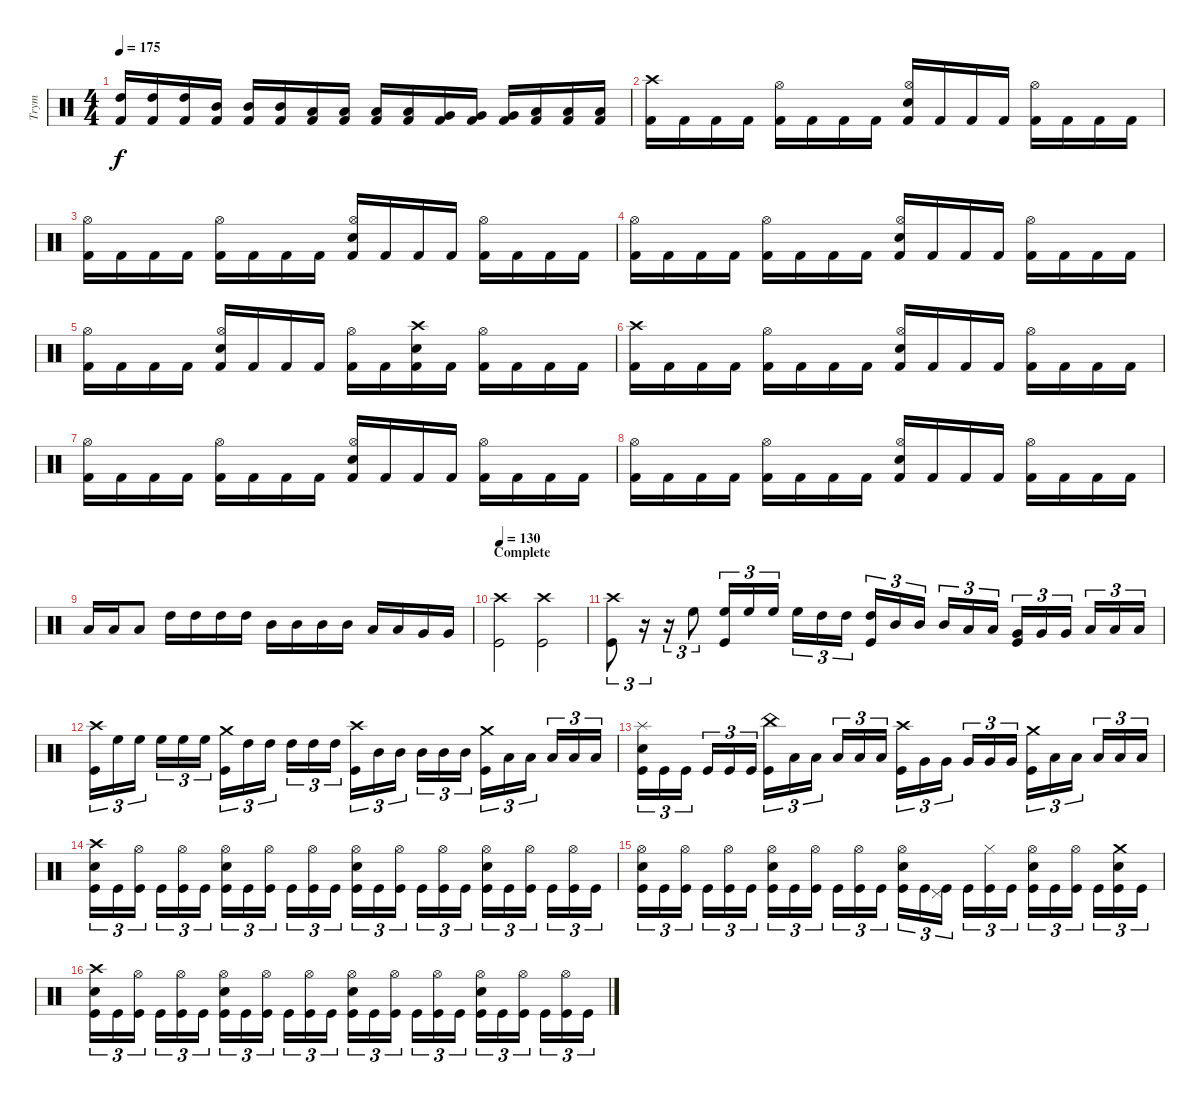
\track ("Trym" "Trym") {instrument percussion}
\staff {score}
\articulation defaults
\ts (4 4)
\tempo 175
\clef neutral
\ks c
("High Tom (hit)" "Kick (hit) 2").16{dy f} ("High Tom (hit)" "Kick (hit) 2").16 ("High Tom (hit)" "Kick (hit) 2").16 ("Mid Tom (hit)" "Kick (hit) 2").16 ("Mid Tom (hit)" "Kick (hit) 2").16 ("Mid Tom (hit)" "Kick (hit) 2").16 ("Low Tom (hit)" "Kick (hit) 2").16 ("Low Tom (hit)" "Kick (hit) 2").16 ("Low Tom (hit)" "Kick (hit) 2").16 ("Low Tom (hit)" "Kick (hit) 2").16 ("Very Low Tom (hit)" "Kick (hit) 2").16 ("Very Low Tom (hit)" "Kick (hit) 2").16 ("Very Low Tom (hit)" "Kick (hit) 2").16 ("Low Floor Tom (hit)" "Kick (hit) 2").16 ("Low Floor Tom (hit)" "Kick (hit) 2").16 ("Low Floor Tom (hit)" "Kick (hit) 2").16 |
("Crash high (hit)" "Kick (hit) 2").16 "Kick (hit) 2".16 "Kick (hit) 2".16 "Kick (hit) 2".16 ("Hi-Hat (open)" "Kick (hit) 2").16 "Kick (hit) 2".16 "Kick (hit) 2".16 "Kick (hit) 2".16 ("Hi-Hat (open)" "Electric Snare (hit)" "Kick (hit) 2").16 "Kick (hit) 2".16 "Kick (hit) 2".16 "Kick (hit) 2".16 ("Hi-Hat (open)" "Kick (hit) 2").16 "Kick (hit) 2".16 "Kick (hit) 2".16 "Kick (hit) 2".16 |
("Hi-Hat (open)" "Kick (hit) 2").16 "Kick (hit) 2".16 "Kick (hit) 2".16 "Kick (hit) 2".16 ("Hi-Hat (open)" "Kick (hit) 2").16 "Kick (hit) 2".16 "Kick (hit) 2".16 "Kick (hit) 2".16 ("Hi-Hat (open)" "Electric Snare (hit)" "Kick (hit) 2").16 "Kick (hit) 2".16 "Kick (hit) 2".16 "Kick (hit) 2".16 ("Hi-Hat (open)" "Kick (hit) 2").16 "Kick (hit) 2".16 "Kick (hit) 2".16 "Kick (hit) 2".16 |
("Hi-Hat (open)" "Kick (hit) 2").16 "Kick (hit) 2".16 "Kick (hit) 2".16 "Kick (hit) 2".16 ("Hi-Hat (open)" "Kick (hit) 2").16 "Kick (hit) 2".16 "Kick (hit) 2".16 "Kick (hit) 2".16 ("Hi-Hat (open)" "Electric Snare (hit)" "Kick (hit) 2").16 "Kick (hit) 2".16 "Kick (hit) 2".16 "Kick (hit) 2".16 ("Hi-Hat (open)" "Kick (hit) 2").16 "Kick (hit) 2".16 "Kick (hit) 2".16 "Kick (hit) 2".16 |
("Hi-Hat (open)" "Kick (hit) 2").16 "Kick (hit) 2".16 "Kick (hit) 2".16 "Kick (hit) 2".16 ("Hi-Hat (open)" "Electric Snare (hit)" "Kick (hit) 2").16 "Kick (hit) 2".16 "Kick (hit) 2".16 "Kick (hit) 2".16 ("Hi-Hat (open)" "Kick (hit) 2").16 "Kick (hit) 2".16 ("Crash high (hit)" "Electric Snare (hit)" "Kick (hit) 2").16 "Kick (hit) 2".16 ("Hi-Hat (open)" "Kick (hit) 2").16 "Kick (hit) 2".16 "Kick (hit) 2".16 "Kick (hit) 2".16 |
("Crash high (hit)" "Kick (hit) 2").16 "Kick (hit) 2".16 "Kick (hit) 2".16 "Kick (hit) 2".16 ("Hi-Hat (open)" "Kick (hit) 2").16 "Kick (hit) 2".16 "Kick (hit) 2".16 "Kick (hit) 2".16 ("Hi-Hat (open)" "Electric Snare (hit)" "Kick (hit) 2").16 "Kick (hit) 2".16 "Kick (hit) 2".16 "Kick (hit) 2".16 ("Hi-Hat (open)" "Kick (hit) 2").16 "Kick (hit) 2".16 "Kick (hit) 2".16 "Kick (hit) 2".16 |
("Hi-Hat (open)" "Kick (hit) 2").16 "Kick (hit) 2".16 "Kick (hit) 2".16 "Kick (hit) 2".16 ("Hi-Hat (open)" "Kick (hit) 2").16 "Kick (hit) 2".16 "Kick (hit) 2".16 "Kick (hit) 2".16 ("Hi-Hat (open)" "Electric Snare (hit)" "Kick (hit) 2").16 "Kick (hit) 2".16 "Kick (hit) 2".16 "Kick (hit) 2".16 ("Hi-Hat (open)" "Kick (hit) 2").16 "Kick (hit) 2".16 "Kick (hit) 2".16 "Kick (hit) 2".16 |
("Hi-Hat (open)" "Kick (hit) 2").16 "Kick (hit) 2".16 "Kick (hit) 2".16 "Kick (hit) 2".16 ("Hi-Hat (open)" "Kick (hit) 2").16 "Kick (hit) 2".16 "Kick (hit) 2".16 "Kick (hit) 2".16 ("Hi-Hat (open)" "Electric Snare (hit)" "Kick (hit) 2").16 "Kick (hit) 2".16 "Kick (hit) 2".16 "Kick (hit) 2".16 ("Hi-Hat (open)" "Kick (hit) 2").16 "Kick (hit) 2".16 "Kick (hit) 2".16 "Kick (hit) 2".16 |
"Low Tom (hit)".16 "Low Tom (hit)".16 "Low Tom (hit)".8 "High Tom (hit)".16 "High Tom (hit)".16 "High Tom (hit)".16 "High Tom (hit)".16 "Mid Tom (hit)".16 "Mid Tom (hit)".16 "Mid Tom (hit)".16 "Mid Tom (hit)".16 "Low Tom (hit)".16 "Low Tom (hit)".16 "Very Low Tom (hit)".16 "Very Low Tom (hit)".16 |
\section ("" "Complete")
\tempo 130
("Crash high (hit)" "Kick (hit)").2 ("Crash high (hit)" "Kick (hit)").2 |
("Crash high (hit)" "Kick (hit)").8{tu (3 2)} r.16{tu (3 2)} r.16{tu (3 2)} "High Floor Tom (hit)".8{tu (3 2)} ("High Floor Tom (hit)" "Kick (hit)").16{tu (3 2)} "High Floor Tom (hit)".16{tu (3 2)} "High Floor Tom (hit)".16{tu (3 2)} "High Floor Tom (hit)".16{tu (3 2)} "High Tom (hit)".16{tu (3 2)} "High Tom (hit)".16{tu (3 2)} ("High Tom (hit)" "Kick (hit)").16{tu (3 2)} "Mid Tom (hit)".16{tu (3 2)} "Mid Tom (hit)".16{tu (3 2)} "Mid Tom (hit)".16{tu (3 2)} "Low Tom (hit)".16{tu (3 2)} "Low Tom (hit)".16{tu (3 2)} ("Very Low Tom (hit)" "Kick (hit)").16{tu (3 2)} "Very Low Tom (hit)".16{tu (3 2)} "Very Low Tom (hit)".16{tu (3 2)} "Low Floor Tom (hit)".16{tu (3 2)} "Low Floor Tom (hit)".16{tu (3 2)} "Low Floor Tom (hit)".16{tu (3 2)} |
("Crash high (hit)" "Kick (hit)").16{tu (3 2)} "High Floor Tom (hit)".16{tu (3 2)} "High Floor Tom (hit)".16{tu (3 2)} "High Floor Tom (hit)".16{tu (3 2)} "High Floor Tom (hit)".16{tu (3 2)} "High Floor Tom (hit)".16{tu (3 2)} ("Crash medium (hit)" "Kick (hit)").16{tu (3 2)} "High Tom (hit)".16{tu (3 2)} "High Tom (hit)".16{tu (3 2)} "High Tom (hit)".16{tu (3 2)} "High Tom (hit)".16{tu (3 2)} "High Tom (hit)".16{tu (3 2)} ("Crash high (hit)" "Kick (hit)").16{tu (3 2)} "Mid Tom (hit)".16{tu (3 2)} "Mid Tom (hit)".16{tu (3 2)} "Mid Tom (hit)".16{tu (3 2)} "Mid Tom (hit)".16{tu (3 2)} "Mid Tom (hit)".16{tu (3 2)} ("Crash medium (hit)" "Kick (hit)").16{tu (3 2)} "Low Tom (hit)".16{tu (3 2)} "Low Tom (hit)".16{tu (3 2)} "Low Tom (hit)".16{tu (3 2)} "Low Tom (hit)".16{tu (3 2)} "Low Tom (hit)".16{tu (3 2)} |
("Splash (hit)" "Electric Snare (hit)" "Kick (hit)").16{tu (3 2)} "Kick (hit)".16{tu (3 2)} "Kick (hit)".16{tu (3 2)} "Kick (hit)".16{tu (3 2)} "Kick (hit)".16{tu (3 2)} "Kick (hit)".16{tu (3 2)} ("China (hit)" "Kick (hit)").16{tu (3 2)} "Low Tom (hit)".16{tu (3 2)} "Low Tom (hit)".16{tu (3 2)} "Low Tom (hit)".16{tu (3 2)} "Low Tom (hit)".16{tu (3 2)} "Low Tom (hit)".16{tu (3 2)} ("Crash high (hit)" "Kick (hit)").16{tu (3 2)} "Very Low Tom (hit)".16{tu (3 2)} "Very Low Tom (hit)".16{tu (3 2)} "Very Low Tom (hit)".16{tu (3 2)} "Very Low Tom (hit)".16{tu (3 2)} "Very Low Tom (hit)".16{tu (3 2)} ("Crash medium (hit)" "Kick (hit)").16{tu (3 2)} "Low Floor Tom (hit)".16{tu (3 2)} "Low Floor Tom (hit)".16{tu (3 2)} "Low Floor Tom (hit)".16{tu (3 2)} "Low Floor Tom (hit)".16{tu (3 2)} "Low Floor Tom (hit)".16{tu (3 2)} |
("Crash high (hit)" "Electric Snare (hit)" "Kick (hit)").16{tu (3 2)} "Kick (hit)".16{tu (3 2)} ("Hi-Hat (open)" "Kick (hit)").16{tu (3 2)} "Kick (hit)".16{tu (3 2)} ("Hi-Hat (open)" "Kick (hit)").16{tu (3 2)} "Kick (hit)".16{tu (3 2)} ("Hi-Hat (open)" "Electric Snare (hit)" "Kick (hit)").16{tu (3 2)} "Kick (hit)".16{tu (3 2)} ("Hi-Hat (open)" "Kick (hit)").16{tu (3 2)} "Kick (hit)".16{tu (3 2)} ("Hi-Hat (open)" "Kick (hit)").16{tu (3 2)} "Kick (hit)".16{tu (3 2)} ("Hi-Hat (open)" "Electric Snare (hit)" "Kick (hit)").16{tu (3 2)} "Kick (hit)".16{tu (3 2)} ("Hi-Hat (open)" "Kick (hit)").16{tu (3 2)} "Kick (hit)".16{tu (3 2)} ("Hi-Hat (open)" "Kick (hit)").16{tu (3 2)} "Kick (hit)".16{tu (3 2)} ("Hi-Hat (open)" "Electric Snare (hit)" "Kick (hit)").16{tu (3 2)} "Kick (hit)".16{tu (3 2)} ("Hi-Hat (open)" "Kick (hit)").16{tu (3 2)} "Kick (hit)".16{tu (3 2)} ("Hi-Hat (open)" "Kick (hit)").16{tu (3 2)} "Kick (hit)".16{tu (3 2)} |
("Hi-Hat (open)" "Electric Snare (hit)" "Kick (hit)").16{tu (3 2)} "Kick (hit)".16{tu (3 2)} ("Hi-Hat (open)" "Kick (hit)").16{tu (3 2)} "Kick (hit)".16{tu (3 2)} ("Hi-Hat (open)" "Kick (hit)").16{tu (3 2)} "Kick (hit)".16{tu (3 2)} ("Hi-Hat (open)" "Electric Snare (hit)" "Kick (hit)").16{tu (3 2)} "Kick (hit)".16{tu (3 2)} ("Hi-Hat (open)" "Kick (hit)").16{tu (3 2)} "Kick (hit)".16{tu (3 2)} ("Hi-Hat (open)" "Kick (hit)").16{tu (3 2)} "Kick (hit)".16{tu (3 2)} ("Hi-Hat (open)" "Electric Snare (hit)" "Kick (hit)").16{tu (3 2)} "Kick (hit)".16{tu (3 2)} ("Pedal Hi-Hat (hit)" "Kick (hit)").16{tu (3 2)} "Kick (hit)".16{tu (3 2)} ("Hi-Hat (closed)" "Kick (hit)").16{tu (3 2)} "Kick (hit)".16{tu (3 2)} ("Hi-Hat (open)" "Electric Snare (hit)" "Kick (hit)").16{tu (3 2)} "Kick (hit)".16{tu (3 2)} ("Hi-Hat (open)" "Kick (hit)").16{tu (3 2)} "Kick (hit)".16{tu (3 2)} ("Crash medium (hit)" "Electric Snare (hit)" "Kick (hit)").16{tu (3 2)} "Kick (hit)".16{tu (3 2)} |
("Crash high (hit)" "Electric Snare (hit)" "Kick (hit)").16{tu (3 2)} "Kick (hit)".16{tu (3 2)} ("Hi-Hat (open)" "Kick (hit)").16{tu (3 2)} "Kick (hit)".16{tu (3 2)} ("Hi-Hat (open)" "Kick (hit)").16{tu (3 2)} "Kick (hit)".16{tu (3 2)} ("Hi-Hat (open)" "Electric Snare (hit)" "Kick (hit)").16{tu (3 2)} "Kick (hit)".16{tu (3 2)} ("Hi-Hat (open)" "Kick (hit)").16{tu (3 2)} "Kick (hit)".16{tu (3 2)} ("Hi-Hat (open)" "Kick (hit)").16{tu (3 2)} "Kick (hit)".16{tu (3 2)} ("Hi-Hat (open)" "Electric Snare (hit)" "Kick (hit)").16{tu (3 2)} "Kick (hit)".16{tu (3 2)} ("Hi-Hat (open)" "Kick (hit)").16{tu (3 2)} "Kick (hit)".16{tu (3 2)} ("Hi-Hat (open)" "Kick (hit)").16{tu (3 2)} "Kick (hit)".16{tu (3 2)} ("Hi-Hat (open)" "Electric Snare (hit)" "Kick (hit)").16{tu (3 2)} "Kick (hit)".16{tu (3 2)} ("Hi-Hat (open)" "Kick (hit)").16{tu (3 2)} "Kick (hit)".16{tu (3 2)} ("Hi-Hat (open)" "Kick (hit)").16{tu (3 2)} "Kick (hit)".16{tu (3 2)}
